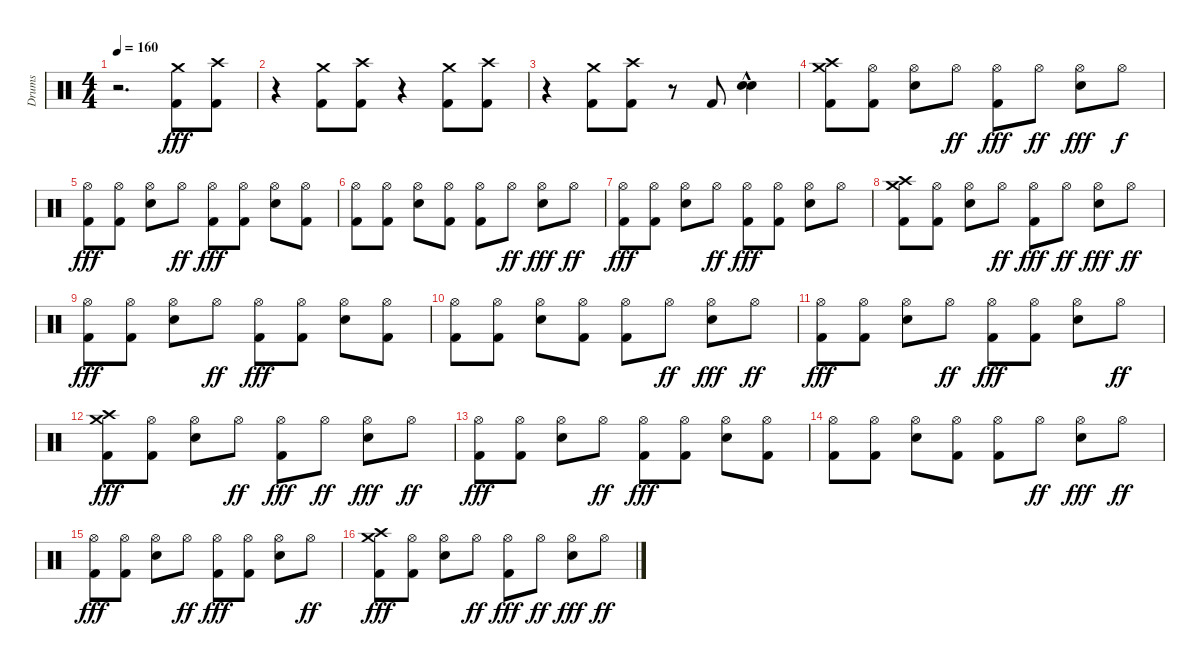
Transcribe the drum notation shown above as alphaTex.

\track ("Drums" "Drums") {instrument percussion}
\staff {score}
\articulation defaults
\ts (4 4)
\tempo 160
\clef neutral
\ks c
r.2{d dy fff} ("Crash medium (hit)" "Kick (hit) 2").8 ("Crash high (hit)" "Kick (hit) 2").8 |
r.4 ("Crash medium (hit)" "Kick (hit) 2").8 ("Crash high (hit)" "Kick (hit) 2").8 r.4 ("Crash medium (hit)" "Kick (hit) 2").8 ("Crash high (hit)" "Kick (hit) 2").8 |
r.4 ("Crash medium (hit)" "Kick (hit) 2").8 ("Crash high (hit)" "Kick (hit) 2").8 r.8 "Kick (hit) 2".8 ("Snare (hit) 2" "Snare (hit) 2"{hac}).4 |
("Crash high (hit)" "Crash medium (hit)" "Kick (hit) 2").8 ("Hi-Hat (open)" "Kick (hit) 2").8 ("Hi-Hat (open)" "Snare (hit) 2").8 "Hi-Hat (open)".8{dy ff} ("Hi-Hat (open)" "Kick (hit) 2").8{dy fff} "Hi-Hat (open)".8{dy ff} ("Hi-Hat (open)" "Snare (hit) 2").8{dy fff} "Hi-Hat (open)".8{dy f} |
("Hi-Hat (open)" "Kick (hit) 2").8{dy fff} ("Hi-Hat (open)" "Kick (hit) 2").8 ("Hi-Hat (open)" "Snare (hit) 2").8 "Hi-Hat (open)".8{dy ff} ("Hi-Hat (open)" "Kick (hit) 2").8{dy fff} ("Hi-Hat (open)" "Kick (hit) 2").8 ("Hi-Hat (open)" "Snare (hit) 2").8 ("Hi-Hat (open)" "Kick (hit) 2").8 |
("Hi-Hat (open)" "Kick (hit) 2").8 ("Hi-Hat (open)" "Kick (hit) 2").8 ("Hi-Hat (open)" "Snare (hit) 2").8 ("Hi-Hat (open)" "Kick (hit) 2").8 ("Hi-Hat (open)" "Kick (hit) 2").8 "Hi-Hat (open)".8{dy ff} ("Hi-Hat (open)" "Snare (hit) 2").8{dy fff} "Hi-Hat (open)".8{dy ff} |
("Hi-Hat (open)" "Kick (hit) 2").8{dy fff} ("Hi-Hat (open)" "Kick (hit) 2").8 ("Hi-Hat (open)" "Snare (hit) 2").8 "Hi-Hat (open)".8{dy ff} ("Hi-Hat (open)" "Kick (hit) 2").8{dy fff} ("Hi-Hat (open)" "Kick (hit) 2").8 ("Hi-Hat (open)" "Snare (hit) 2").8 "Hi-Hat (open)".8 |
("Crash high (hit)" "Crash medium (hit)" "Kick (hit) 2").8 ("Hi-Hat (open)" "Kick (hit) 2").8 ("Hi-Hat (open)" "Snare (hit) 2").8 "Hi-Hat (open)".8{dy ff} ("Hi-Hat (open)" "Kick (hit) 2").8{dy fff} "Hi-Hat (open)".8{dy ff} ("Hi-Hat (open)" "Snare (hit) 2").8{dy fff} "Hi-Hat (open)".8{dy ff} |
("Hi-Hat (open)" "Kick (hit) 2").8{dy fff} ("Hi-Hat (open)" "Kick (hit) 2").8 ("Hi-Hat (open)" "Snare (hit) 2").8 "Hi-Hat (open)".8{dy ff} ("Hi-Hat (open)" "Kick (hit) 2").8{dy fff} ("Hi-Hat (open)" "Kick (hit) 2").8 ("Hi-Hat (open)" "Snare (hit) 2").8 ("Hi-Hat (open)" "Kick (hit) 2").8 |
("Hi-Hat (open)" "Kick (hit) 2").8 ("Hi-Hat (open)" "Kick (hit) 2").8 ("Hi-Hat (open)" "Snare (hit) 2").8 ("Hi-Hat (open)" "Kick (hit) 2").8 ("Hi-Hat (open)" "Kick (hit) 2").8 "Hi-Hat (open)".8{dy ff} ("Hi-Hat (open)" "Snare (hit) 2").8{dy fff} "Hi-Hat (open)".8{dy ff} |
("Hi-Hat (open)" "Kick (hit) 2").8{dy fff} ("Hi-Hat (open)" "Kick (hit) 2").8 ("Hi-Hat (open)" "Snare (hit) 2").8 "Hi-Hat (open)".8{dy ff} ("Hi-Hat (open)" "Kick (hit) 2").8{dy fff} ("Hi-Hat (open)" "Kick (hit) 2").8 ("Hi-Hat (open)" "Snare (hit) 2").8 "Hi-Hat (open)".8{dy ff} |
("Crash high (hit)" "Crash medium (hit)" "Kick (hit) 2").8{dy fff} ("Hi-Hat (open)" "Kick (hit) 2").8 ("Hi-Hat (open)" "Snare (hit) 2").8 "Hi-Hat (open)".8{dy ff} ("Hi-Hat (open)" "Kick (hit) 2").8{dy fff} "Hi-Hat (open)".8{dy ff} ("Hi-Hat (open)" "Snare (hit) 2").8{dy fff} "Hi-Hat (open)".8{dy ff} |
("Hi-Hat (open)" "Kick (hit) 2").8{dy fff} ("Hi-Hat (open)" "Kick (hit) 2").8 ("Hi-Hat (open)" "Snare (hit) 2").8 "Hi-Hat (open)".8{dy ff} ("Hi-Hat (open)" "Kick (hit) 2").8{dy fff} ("Hi-Hat (open)" "Kick (hit) 2").8 ("Hi-Hat (open)" "Snare (hit) 2").8 ("Hi-Hat (open)" "Kick (hit) 2").8 |
("Hi-Hat (open)" "Kick (hit) 2").8 ("Hi-Hat (open)" "Kick (hit) 2").8 ("Hi-Hat (open)" "Snare (hit) 2").8 ("Hi-Hat (open)" "Kick (hit) 2").8 ("Hi-Hat (open)" "Kick (hit) 2").8 "Hi-Hat (open)".8{dy ff} ("Hi-Hat (open)" "Snare (hit) 2").8{dy fff} "Hi-Hat (open)".8{dy ff} |
("Hi-Hat (open)" "Kick (hit) 2").8{dy fff} ("Hi-Hat (open)" "Kick (hit) 2").8 ("Hi-Hat (open)" "Snare (hit) 2").8 "Hi-Hat (open)".8{dy ff} ("Hi-Hat (open)" "Kick (hit) 2").8{dy fff} ("Hi-Hat (open)" "Kick (hit) 2").8 ("Hi-Hat (open)" "Snare (hit) 2").8 "Hi-Hat (open)".8{dy ff} |
("Crash high (hit)" "Crash medium (hit)" "Kick (hit) 2").8{dy fff} ("Hi-Hat (open)" "Kick (hit) 2").8 ("Hi-Hat (open)" "Snare (hit) 2").8 "Hi-Hat (open)".8{dy ff} ("Hi-Hat (open)" "Kick (hit) 2").8{dy fff} "Hi-Hat (open)".8{dy ff} ("Hi-Hat (open)" "Snare (hit) 2").8{dy fff} "Hi-Hat (open)".8{dy ff}
